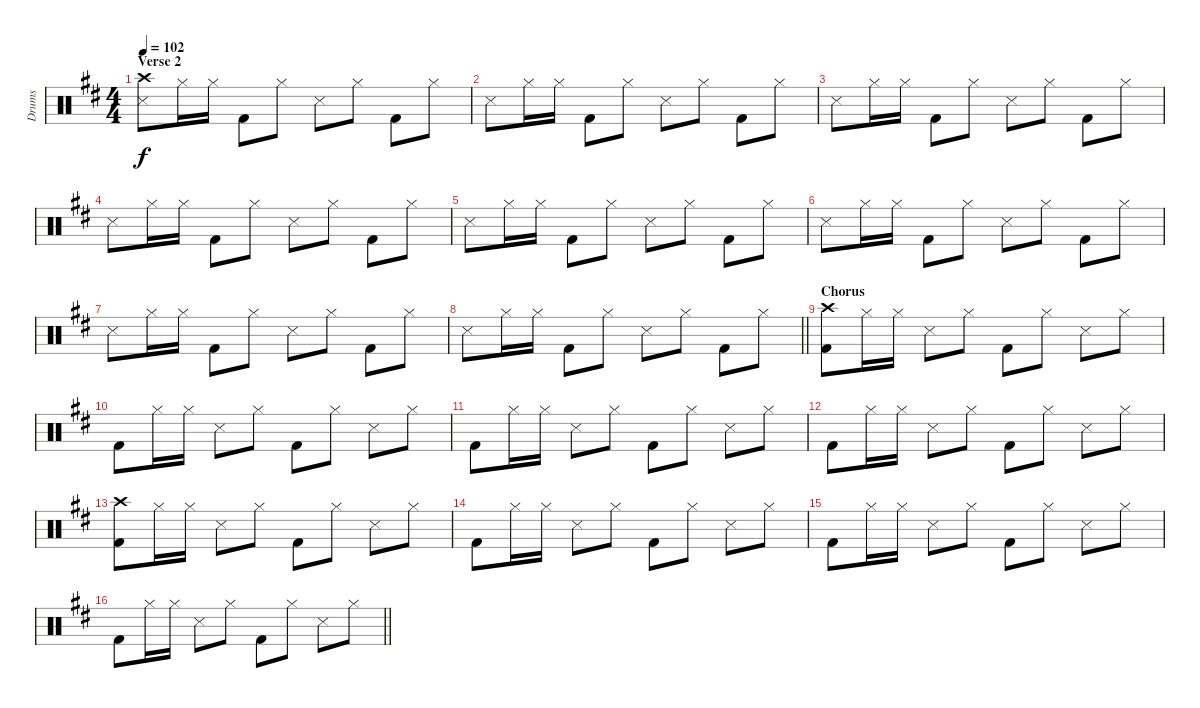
\track ("Drums" "Drums") {instrument percussion}
\staff {score}
\articulation defaults
\ts (4 4)
\section ("" "Verse 2")
\tempo 102
\clef neutral
\ks d
("Snare (side stick) 3" "Crash high (hit)").8{dy f} "Hi-Hat (closed)".16 "Hi-Hat (closed)".16 "Kick (hit) 2".8 "Hi-Hat (closed)".8 "Snare (side stick) 3".8 "Hi-Hat (closed)".8 "Kick (hit) 2".8 "Hi-Hat (closed)".8 |
"Snare (side stick) 3".8 "Hi-Hat (closed)".16 "Hi-Hat (closed)".16 "Kick (hit) 2".8 "Hi-Hat (closed)".8 "Snare (side stick) 3".8 "Hi-Hat (closed)".8 "Kick (hit) 2".8 "Hi-Hat (closed)".8 |
"Snare (side stick) 3".8 "Hi-Hat (closed)".16 "Hi-Hat (closed)".16 "Kick (hit) 2".8 "Hi-Hat (closed)".8 "Snare (side stick) 3".8 "Hi-Hat (closed)".8 "Kick (hit) 2".8 "Hi-Hat (closed)".8 |
"Snare (side stick) 3".8 "Hi-Hat (closed)".16 "Hi-Hat (closed)".16 "Kick (hit) 2".8 "Hi-Hat (closed)".8 "Snare (side stick) 3".8 "Hi-Hat (closed)".8 "Kick (hit) 2".8 "Hi-Hat (closed)".8 |
"Snare (side stick) 3".8 "Hi-Hat (closed)".16 "Hi-Hat (closed)".16 "Kick (hit) 2".8 "Hi-Hat (closed)".8 "Snare (side stick) 3".8 "Hi-Hat (closed)".8 "Kick (hit) 2".8 "Hi-Hat (closed)".8 |
"Snare (side stick) 3".8 "Hi-Hat (closed)".16 "Hi-Hat (closed)".16 "Kick (hit) 2".8 "Hi-Hat (closed)".8 "Snare (side stick) 3".8 "Hi-Hat (closed)".8 "Kick (hit) 2".8 "Hi-Hat (closed)".8 |
"Snare (side stick) 3".8 "Hi-Hat (closed)".16 "Hi-Hat (closed)".16 "Kick (hit) 2".8 "Hi-Hat (closed)".8 "Snare (side stick) 3".8 "Hi-Hat (closed)".8 "Kick (hit) 2".8 "Hi-Hat (closed)".8 |
\barLineRight lightlight "Snare (side stick) 3".8 "Hi-Hat (closed)".16 "Hi-Hat (closed)".16 "Kick (hit) 2".8 "Hi-Hat (closed)".8 "Snare (side stick) 3".8 "Hi-Hat (closed)".8 "Kick (hit) 2".8 "Hi-Hat (closed)".8
|
\section ("" "Chorus")
("Crash high (hit)" "Kick (hit) 2").8 "Hi-Hat (closed)".16 "Hi-Hat (closed)".16 "Snare (side stick) 3".8 "Hi-Hat (closed)".8 "Kick (hit) 2".8 "Hi-Hat (closed)".8 "Snare (side stick) 3".8 "Hi-Hat (closed)".8 |
"Kick (hit) 2".8 "Hi-Hat (closed)".16 "Hi-Hat (closed)".16 "Snare (side stick) 3".8 "Hi-Hat (closed)".8 "Kick (hit) 2".8 "Hi-Hat (closed)".8 "Snare (side stick) 3".8 "Hi-Hat (closed)".8 |
"Kick (hit) 2".8 "Hi-Hat (closed)".16 "Hi-Hat (closed)".16 "Snare (side stick) 3".8 "Hi-Hat (closed)".8 "Kick (hit) 2".8 "Hi-Hat (closed)".8 "Snare (side stick) 3".8 "Hi-Hat (closed)".8 |
"Kick (hit) 2".8 "Hi-Hat (closed)".16 "Hi-Hat (closed)".16 "Snare (side stick) 3".8 "Hi-Hat (closed)".8 "Kick (hit) 2".8 "Hi-Hat (closed)".8 "Snare (side stick) 3".8 "Hi-Hat (closed)".8 |
("Crash high (hit)" "Kick (hit) 2").8 "Hi-Hat (closed)".16 "Hi-Hat (closed)".16 "Snare (side stick) 3".8 "Hi-Hat (closed)".8 "Kick (hit) 2".8 "Hi-Hat (closed)".8 "Snare (side stick) 3".8 "Hi-Hat (closed)".8 |
"Kick (hit) 2".8 "Hi-Hat (closed)".16 "Hi-Hat (closed)".16 "Snare (side stick) 3".8 "Hi-Hat (closed)".8 "Kick (hit) 2".8 "Hi-Hat (closed)".8 "Snare (side stick) 3".8 "Hi-Hat (closed)".8 |
"Kick (hit) 2".8 "Hi-Hat (closed)".16 "Hi-Hat (closed)".16 "Snare (side stick) 3".8 "Hi-Hat (closed)".8 "Kick (hit) 2".8 "Hi-Hat (closed)".8 "Snare (side stick) 3".8 "Hi-Hat (closed)".8 |
\barLineRight lightlight "Kick (hit) 2".8 "Hi-Hat (closed)".16 "Hi-Hat (closed)".16 "Snare (side stick) 3".8 "Hi-Hat (closed)".8 "Kick (hit) 2".8 "Hi-Hat (closed)".8 "Snare (side stick) 3".8 "Hi-Hat (closed)".8
